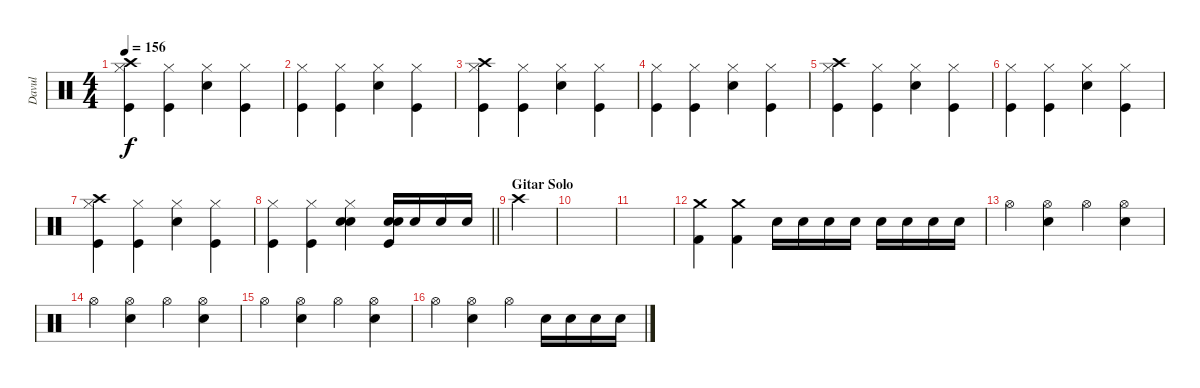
\track ("Davul" "Davul") {instrument percussion}
\staff {score}
\articulation defaults
\ts (4 4)
\tempo 156
\clef neutral
\ks c
("Hi-Hat (closed)" "Kick (hit)" "Crash high (hit)").4{dy f} ("Hi-Hat (closed)" "Kick (hit)").4 ("Hi-Hat (closed)" "Snare (hit) 2").4 ("Hi-Hat (closed)" "Kick (hit)").4 |
("Hi-Hat (closed)" "Kick (hit)").4 ("Hi-Hat (closed)" "Kick (hit)").4 ("Hi-Hat (closed)" "Snare (hit) 2").4 ("Hi-Hat (closed)" "Kick (hit)").4 |
("Hi-Hat (closed)" "Kick (hit)" "Crash high (hit)").4 ("Hi-Hat (closed)" "Kick (hit)").4 ("Hi-Hat (closed)" "Snare (hit) 2").4 ("Hi-Hat (closed)" "Kick (hit)").4 |
("Hi-Hat (closed)" "Kick (hit)").4 ("Hi-Hat (closed)" "Kick (hit)").4 ("Hi-Hat (closed)" "Snare (hit) 2").4 ("Hi-Hat (closed)" "Kick (hit)").4 |
("Hi-Hat (closed)" "Kick (hit)" "Crash high (hit)").4 ("Hi-Hat (closed)" "Kick (hit)").4 ("Hi-Hat (closed)" "Snare (hit) 2").4 ("Hi-Hat (closed)" "Kick (hit)").4 |
("Hi-Hat (closed)" "Kick (hit)").4 ("Hi-Hat (closed)" "Kick (hit)").4 ("Hi-Hat (closed)" "Snare (hit) 2").4 ("Hi-Hat (closed)" "Kick (hit)").4 |
("Hi-Hat (closed)" "Kick (hit)" "Crash high (hit)").4 ("Hi-Hat (closed)" "Kick (hit)").4 ("Hi-Hat (closed)" "Snare (hit) 2").4 ("Hi-Hat (closed)" "Kick (hit)").4 |
\barLineRight lightlight
("Hi-Hat (closed)" "Kick (hit)").4 ("Hi-Hat (closed)" "Kick (hit)").4 ("Hi-Hat (closed)" "Snare (hit) 2" "Snare (hit) 2").4 ("Snare (hit) 2" "Kick (hit)" "Snare (hit) 2").16 "Snare (hit) 2".16 "Snare (hit) 2".16 "Snare (hit) 2".16 |
\section ("" "Gitar Solo")
"Crash high (hit)".4 |
|
|
("Crash medium (hit)" "Kick (hit) 2").4 ("Crash medium (hit)" "Kick (hit) 2").4 "Snare (hit) 2".16 "Snare (hit) 2".16 "Snare (hit) 2".16 "Snare (hit) 2".16 "Snare (hit) 2".16 "Snare (hit) 2".16 "Snare (hit) 2".16 "Snare (hit) 2".16 |
"Hi-Hat (open)".4 ("Hi-Hat (open)" "Snare (hit) 2").4 "Hi-Hat (open)".4 ("Hi-Hat (open)" "Snare (hit) 2").4 |
"Hi-Hat (open)".4 ("Hi-Hat (open)" "Snare (hit) 2").4 "Hi-Hat (open)".4 ("Hi-Hat (open)" "Snare (hit) 2").4 |
"Hi-Hat (open)".4 ("Hi-Hat (open)" "Snare (hit) 2").4 "Hi-Hat (open)".4 ("Hi-Hat (open)" "Snare (hit) 2").4 |
"Hi-Hat (open)".4 ("Hi-Hat (open)" "Snare (hit) 2").4 "Hi-Hat (open)".4 "Snare (hit) 2".16 "Snare (hit) 2".16 "Snare (hit) 2".16 "Snare (hit) 2".16
